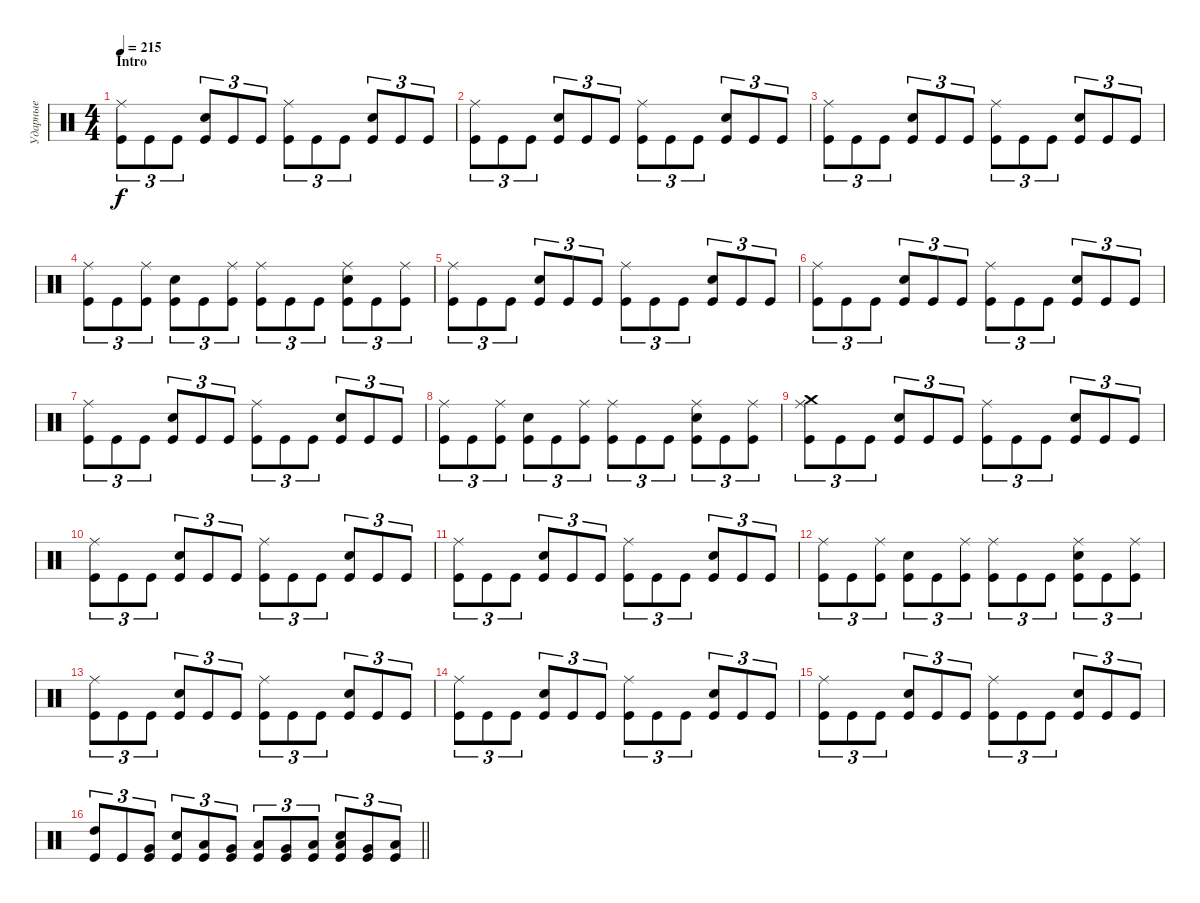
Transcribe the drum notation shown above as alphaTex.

\track ("Ударные" "Ударные") {instrument percussion}
\staff {score}
\articulation defaults
\ts (4 4)
\section ("" "Intro")
\tempo 215
\clef neutral
\ks c
("Ride (middle)" "Kick (hit)").8{tu (3 2) dy f} "Kick (hit)".8{tu (3 2)} "Kick (hit)".8{tu (3 2)} ("Electric Snare (hit)" "Kick (hit)").8{tu (3 2)} "Kick (hit)".8{tu (3 2)} "Kick (hit)".8{tu (3 2)} ("Ride (middle)" "Kick (hit)").8{tu (3 2)} "Kick (hit)".8{tu (3 2)} "Kick (hit)".8{tu (3 2)} ("Electric Snare (hit)" "Kick (hit)").8{tu (3 2)} "Kick (hit)".8{tu (3 2)} "Kick (hit)".8{tu (3 2)} |
("Ride (middle)" "Kick (hit)").8{tu (3 2)} "Kick (hit)".8{tu (3 2)} "Kick (hit)".8{tu (3 2)} ("Electric Snare (hit)" "Kick (hit)").8{tu (3 2)} "Kick (hit)".8{tu (3 2)} "Kick (hit)".8{tu (3 2)} ("Ride (middle)" "Kick (hit)").8{tu (3 2)} "Kick (hit)".8{tu (3 2)} "Kick (hit)".8{tu (3 2)} ("Electric Snare (hit)" "Kick (hit)").8{tu (3 2)} "Kick (hit)".8{tu (3 2)} "Kick (hit)".8{tu (3 2)} |
("Ride (middle)" "Kick (hit)").8{tu (3 2)} "Kick (hit)".8{tu (3 2)} "Kick (hit)".8{tu (3 2)} ("Electric Snare (hit)" "Kick (hit)").8{tu (3 2)} "Kick (hit)".8{tu (3 2)} "Kick (hit)".8{tu (3 2)} ("Ride (middle)" "Kick (hit)").8{tu (3 2)} "Kick (hit)".8{tu (3 2)} "Kick (hit)".8{tu (3 2)} ("Electric Snare (hit)" "Kick (hit)").8{tu (3 2)} "Kick (hit)".8{tu (3 2)} "Kick (hit)".8{tu (3 2)} |
("Ride (middle)" "Kick (hit)").8{tu (3 2)} "Kick (hit)".8{tu (3 2)} ("Ride (middle)" "Kick (hit)").8{tu (3 2)} ("Electric Snare (hit)" "Kick (hit)").8{tu (3 2)} "Kick (hit)".8{tu (3 2)} ("Ride (middle)" "Kick (hit)").8{tu (3 2)} ("Ride (middle)" "Kick (hit)").8{tu (3 2)} "Kick (hit)".8{tu (3 2)} "Kick (hit)".8{tu (3 2)} ("Ride (middle)" "Electric Snare (hit)" "Kick (hit)").8{tu (3 2)} "Kick (hit)".8{tu (3 2)} ("Ride (middle)" "Kick (hit)").8{tu (3 2)} |
("Ride (middle)" "Kick (hit)").8{tu (3 2)} "Kick (hit)".8{tu (3 2)} "Kick (hit)".8{tu (3 2)} ("Electric Snare (hit)" "Kick (hit)").8{tu (3 2)} "Kick (hit)".8{tu (3 2)} "Kick (hit)".8{tu (3 2)} ("Ride (middle)" "Kick (hit)").8{tu (3 2)} "Kick (hit)".8{tu (3 2)} "Kick (hit)".8{tu (3 2)} ("Electric Snare (hit)" "Kick (hit)").8{tu (3 2)} "Kick (hit)".8{tu (3 2)} "Kick (hit)".8{tu (3 2)} |
("Ride (middle)" "Kick (hit)").8{tu (3 2)} "Kick (hit)".8{tu (3 2)} "Kick (hit)".8{tu (3 2)} ("Electric Snare (hit)" "Kick (hit)").8{tu (3 2)} "Kick (hit)".8{tu (3 2)} "Kick (hit)".8{tu (3 2)} ("Ride (middle)" "Kick (hit)").8{tu (3 2)} "Kick (hit)".8{tu (3 2)} "Kick (hit)".8{tu (3 2)} ("Electric Snare (hit)" "Kick (hit)").8{tu (3 2)} "Kick (hit)".8{tu (3 2)} "Kick (hit)".8{tu (3 2)} |
("Ride (middle)" "Kick (hit)").8{tu (3 2)} "Kick (hit)".8{tu (3 2)} "Kick (hit)".8{tu (3 2)} ("Electric Snare (hit)" "Kick (hit)").8{tu (3 2)} "Kick (hit)".8{tu (3 2)} "Kick (hit)".8{tu (3 2)} ("Ride (middle)" "Kick (hit)").8{tu (3 2)} "Kick (hit)".8{tu (3 2)} "Kick (hit)".8{tu (3 2)} ("Electric Snare (hit)" "Kick (hit)").8{tu (3 2)} "Kick (hit)".8{tu (3 2)} "Kick (hit)".8{tu (3 2)} |
("Ride (middle)" "Kick (hit)").8{tu (3 2)} "Kick (hit)".8{tu (3 2)} ("Ride (middle)" "Kick (hit)").8{tu (3 2)} ("Electric Snare (hit)" "Kick (hit)").8{tu (3 2)} "Kick (hit)".8{tu (3 2)} ("Ride (middle)" "Kick (hit)").8{tu (3 2)} ("Ride (middle)" "Kick (hit)").8{tu (3 2)} "Kick (hit)".8{tu (3 2)} "Kick (hit)".8{tu (3 2)} ("Ride (middle)" "Electric Snare (hit)" "Kick (hit)").8{tu (3 2)} "Kick (hit)".8{tu (3 2)} ("Ride (middle)" "Kick (hit)").8{tu (3 2)} |
("Crash medium (hit)" "Ride (middle)" "Kick (hit)").8{tu (3 2)} "Kick (hit)".8{tu (3 2)} "Kick (hit)".8{tu (3 2)} ("Electric Snare (hit)" "Kick (hit)").8{tu (3 2)} "Kick (hit)".8{tu (3 2)} "Kick (hit)".8{tu (3 2)} ("Ride (middle)" "Kick (hit)").8{tu (3 2)} "Kick (hit)".8{tu (3 2)} "Kick (hit)".8{tu (3 2)} ("Electric Snare (hit)" "Kick (hit)").8{tu (3 2)} "Kick (hit)".8{tu (3 2)} "Kick (hit)".8{tu (3 2)} |
("Ride (middle)" "Kick (hit)").8{tu (3 2)} "Kick (hit)".8{tu (3 2)} "Kick (hit)".8{tu (3 2)} ("Electric Snare (hit)" "Kick (hit)").8{tu (3 2)} "Kick (hit)".8{tu (3 2)} "Kick (hit)".8{tu (3 2)} ("Ride (middle)" "Kick (hit)").8{tu (3 2)} "Kick (hit)".8{tu (3 2)} "Kick (hit)".8{tu (3 2)} ("Electric Snare (hit)" "Kick (hit)").8{tu (3 2)} "Kick (hit)".8{tu (3 2)} "Kick (hit)".8{tu (3 2)} |
("Ride (middle)" "Kick (hit)").8{tu (3 2)} "Kick (hit)".8{tu (3 2)} "Kick (hit)".8{tu (3 2)} ("Electric Snare (hit)" "Kick (hit)").8{tu (3 2)} "Kick (hit)".8{tu (3 2)} "Kick (hit)".8{tu (3 2)} ("Ride (middle)" "Kick (hit)").8{tu (3 2)} "Kick (hit)".8{tu (3 2)} "Kick (hit)".8{tu (3 2)} ("Electric Snare (hit)" "Kick (hit)").8{tu (3 2)} "Kick (hit)".8{tu (3 2)} "Kick (hit)".8{tu (3 2)} |
("Ride (middle)" "Kick (hit)").8{tu (3 2)} "Kick (hit)".8{tu (3 2)} ("Ride (middle)" "Kick (hit)").8{tu (3 2)} ("Electric Snare (hit)" "Kick (hit)").8{tu (3 2)} "Kick (hit)".8{tu (3 2)} ("Ride (middle)" "Kick (hit)").8{tu (3 2)} ("Ride (middle)" "Kick (hit)").8{tu (3 2)} "Kick (hit)".8{tu (3 2)} "Kick (hit)".8{tu (3 2)} ("Ride (middle)" "Electric Snare (hit)" "Kick (hit)").8{tu (3 2)} "Kick (hit)".8{tu (3 2)} ("Ride (middle)" "Kick (hit)").8{tu (3 2)} |
("Ride (middle)" "Kick (hit)").8{tu (3 2)} "Kick (hit)".8{tu (3 2)} "Kick (hit)".8{tu (3 2)} ("Electric Snare (hit)" "Kick (hit)").8{tu (3 2)} "Kick (hit)".8{tu (3 2)} "Kick (hit)".8{tu (3 2)} ("Ride (middle)" "Kick (hit)").8{tu (3 2)} "Kick (hit)".8{tu (3 2)} "Kick (hit)".8{tu (3 2)} ("Electric Snare (hit)" "Kick (hit)").8{tu (3 2)} "Kick (hit)".8{tu (3 2)} "Kick (hit)".8{tu (3 2)} |
("Ride (middle)" "Kick (hit)").8{tu (3 2)} "Kick (hit)".8{tu (3 2)} "Kick (hit)".8{tu (3 2)} ("Electric Snare (hit)" "Kick (hit)").8{tu (3 2)} "Kick (hit)".8{tu (3 2)} "Kick (hit)".8{tu (3 2)} ("Ride (middle)" "Kick (hit)").8{tu (3 2)} "Kick (hit)".8{tu (3 2)} "Kick (hit)".8{tu (3 2)} ("Electric Snare (hit)" "Kick (hit)").8{tu (3 2)} "Kick (hit)".8{tu (3 2)} "Kick (hit)".8{tu (3 2)} |
("Ride (middle)" "Kick (hit)").8{tu (3 2)} "Kick (hit)".8{tu (3 2)} "Kick (hit)".8{tu (3 2)} ("Electric Snare (hit)" "Kick (hit)").8{tu (3 2)} "Kick (hit)".8{tu (3 2)} "Kick (hit)".8{tu (3 2)} ("Ride (middle)" "Kick (hit)").8{tu (3 2)} "Kick (hit)".8{tu (3 2)} "Kick (hit)".8{tu (3 2)} ("Electric Snare (hit)" "Kick (hit)").8{tu (3 2)} "Kick (hit)".8{tu (3 2)} "Kick (hit)".8{tu (3 2)} |
\barLineRight lightlight
("High Tom (hit)" "Kick (hit)").8{tu (3 2)} "Kick (hit)".8{tu (3 2)} ("Very Low Tom (hit)" "Kick (hit)").8{tu (3 2)} ("Electric Snare (hit)" "Kick (hit)").8{tu (3 2)} ("Low Tom (hit)" "Kick (hit)").8{tu (3 2)} ("Very Low Tom (hit)" "Kick (hit)").8{tu (3 2)} ("Low Tom (hit)" "Kick (hit)").8{tu (3 2)} ("Very Low Tom (hit)" "Kick (hit)").8{tu (3 2)} ("Low Floor Tom (hit)" "Kick (hit)").8{tu (3 2)} ("Low Tom (hit)" "Electric Snare (hit)" "Kick (hit)").8{tu (3 2)} ("Very Low Tom (hit)" "Kick (hit)").8{tu (3 2)} ("Low Floor Tom (hit)" "Kick (hit)").8{tu (3 2)}
